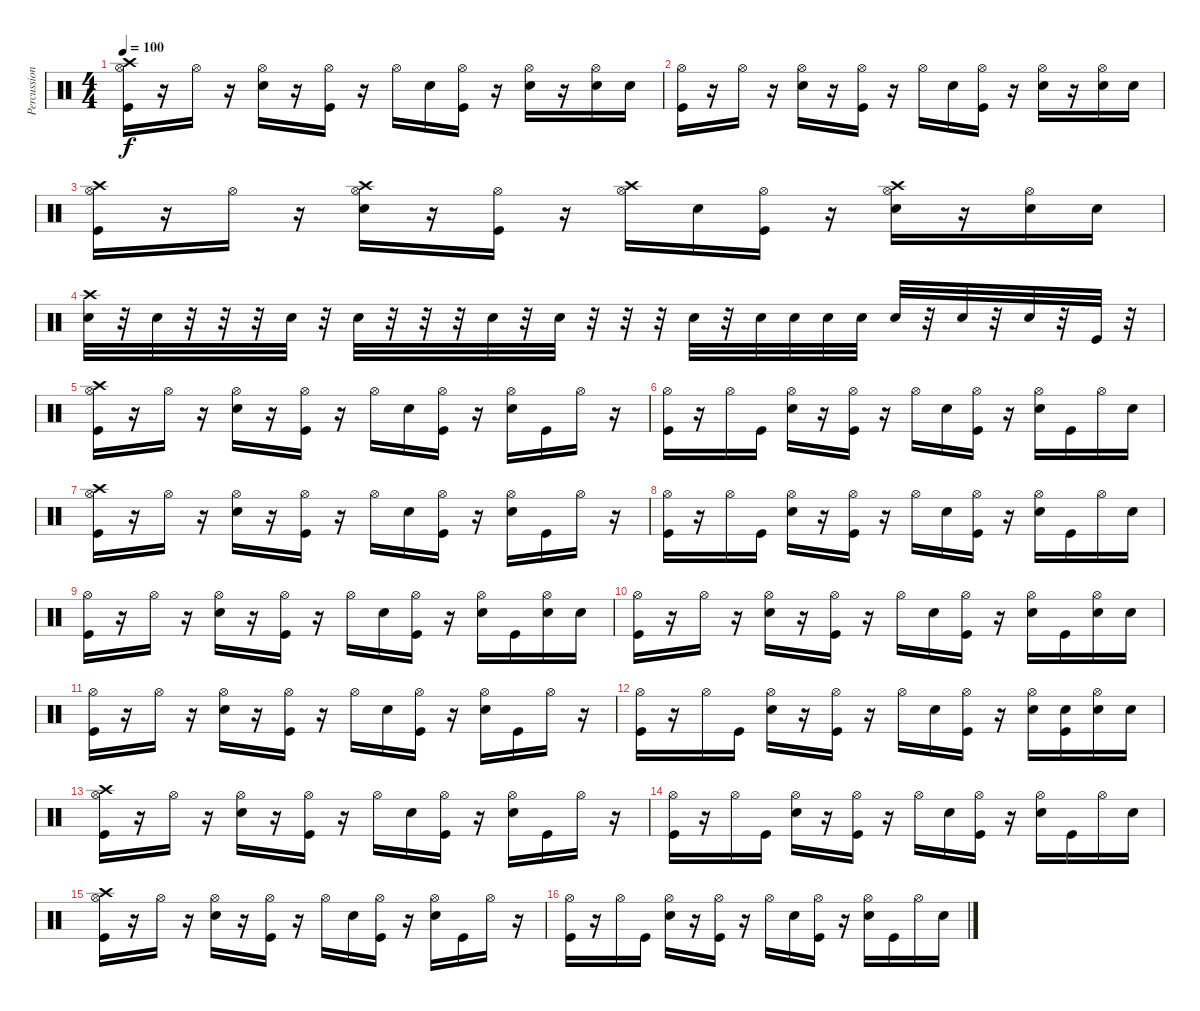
\track ("Percussion" "Percussion") {instrument percussion}
\staff {score}
\articulation defaults
\ts (4 4)
\tempo 100
\clef neutral
\ks c
("Crash high (hit)" "Hi-Hat (open)" "Kick (hit)").16{dy f} r.16 "Hi-Hat (open)".16 r.16 ("Hi-Hat (open)" "Snare (hit) 2").16 r.16 ("Hi-Hat (open)" "Kick (hit)").16 r.16 "Hi-Hat (open)".16 "Snare (hit) 2".16 ("Hi-Hat (open)" "Kick (hit)").16 r.16 ("Hi-Hat (open)" "Snare (hit) 2").16 r.16 ("Hi-Hat (open)" "Snare (hit) 2").16 "Snare (hit) 2".16 |
("Hi-Hat (open)" "Kick (hit)").16 r.16 "Hi-Hat (open)".16 r.16 ("Hi-Hat (open)" "Snare (hit) 2").16 r.16 ("Hi-Hat (open)" "Kick (hit)").16 r.16 "Hi-Hat (open)".16 "Snare (hit) 2".16 ("Hi-Hat (open)" "Kick (hit)").16 r.16 ("Hi-Hat (open)" "Snare (hit) 2").16 r.16 ("Hi-Hat (open)" "Snare (hit) 2").16 "Snare (hit) 2".16 |
("Crash high (hit)" "Hi-Hat (open)" "Kick (hit)").16 r.16 "Hi-Hat (open)".16 r.16 ("Crash high (hit)" "Hi-Hat (open)" "Snare (hit) 2").16 r.16 ("Hi-Hat (open)" "Kick (hit)").16 r.16 ("Crash high (hit)" "Hi-Hat (open)").16 "Snare (hit) 2".16 ("Hi-Hat (open)" "Kick (hit)").16 r.16 ("Crash high (hit)" "Hi-Hat (open)" "Snare (hit) 2").16 r.16 ("Hi-Hat (open)" "Snare (hit) 2").16 "Snare (hit) 2".16 |
("Crash high (hit)" "Snare (hit) 2").32 r.32 "Snare (hit) 2".32 r.32 r.32 r.32 "Snare (hit) 2".32 r.32 "Snare (hit) 2".32 r.32 r.32 r.32 "Snare (hit) 2".32 r.32 "Snare (hit) 2".32 r.32 r.32 r.32 "Snare (hit) 2".32 r.32 "Snare (hit) 2".32 "Snare (hit) 2".32 "Snare (hit) 2".32 "Snare (hit) 2".32 "Snare (hit) 2".32 r.32 "Snare (hit) 2".32 r.32 "Snare (hit) 2".32 r.32 "Kick (hit)".32 r.32 |
("Crash high (hit)" "Hi-Hat (open)" "Kick (hit)").16 r.16 "Hi-Hat (open)".16 r.16 ("Hi-Hat (open)" "Snare (hit) 2").16 r.16 ("Hi-Hat (open)" "Kick (hit)").16 r.16 "Hi-Hat (open)".16 "Snare (hit) 2".16 ("Hi-Hat (open)" "Kick (hit)").16 r.16 ("Hi-Hat (open)" "Snare (hit) 2").16 "Kick (hit)".16 "Hi-Hat (open)".16 r.16 |
("Hi-Hat (open)" "Kick (hit)").16 r.16 "Hi-Hat (open)".16 "Kick (hit)".16 ("Hi-Hat (open)" "Snare (hit) 2").16 r.16 ("Hi-Hat (open)" "Kick (hit)").16 r.16 "Hi-Hat (open)".16 "Snare (hit) 2".16 ("Hi-Hat (open)" "Kick (hit)").16 r.16 ("Hi-Hat (open)" "Snare (hit) 2").16 "Kick (hit)".16 "Hi-Hat (open)".16 "Snare (hit) 2".16 |
("Crash high (hit)" "Hi-Hat (open)" "Kick (hit)").16 r.16 "Hi-Hat (open)".16 r.16 ("Hi-Hat (open)" "Snare (hit) 2").16 r.16 ("Hi-Hat (open)" "Kick (hit)").16 r.16 "Hi-Hat (open)".16 "Snare (hit) 2".16 ("Hi-Hat (open)" "Kick (hit)").16 r.16 ("Hi-Hat (open)" "Snare (hit) 2").16 "Kick (hit)".16 "Hi-Hat (open)".16 r.16 |
("Hi-Hat (open)" "Kick (hit)").16 r.16 "Hi-Hat (open)".16 "Kick (hit)".16 ("Hi-Hat (open)" "Snare (hit) 2").16 r.16 ("Hi-Hat (open)" "Kick (hit)").16 r.16 "Hi-Hat (open)".16 "Snare (hit) 2".16 ("Hi-Hat (open)" "Kick (hit)").16 r.16 ("Hi-Hat (open)" "Snare (hit) 2").16 "Kick (hit)".16 "Hi-Hat (open)".16 "Snare (hit) 2".16 |
("Hi-Hat (open)" "Kick (hit)").16 r.16 "Hi-Hat (open)".16 r.16 ("Hi-Hat (open)" "Snare (hit) 2").16 r.16 ("Hi-Hat (open)" "Kick (hit)").16 r.16 "Hi-Hat (open)".16 "Snare (hit) 2".16 ("Hi-Hat (open)" "Kick (hit)").16 r.16 ("Hi-Hat (open)" "Snare (hit) 2").16 "Kick (hit)".16 ("Hi-Hat (open)" "Snare (hit) 2").16 "Snare (hit) 2".16 |
("Hi-Hat (open)" "Kick (hit)").16 r.16 "Hi-Hat (open)".16 r.16 ("Hi-Hat (open)" "Snare (hit) 2").16 r.16 ("Hi-Hat (open)" "Kick (hit)").16 r.16 "Hi-Hat (open)".16 "Snare (hit) 2".16 ("Hi-Hat (open)" "Kick (hit)").16 r.16 ("Hi-Hat (open)" "Snare (hit) 2").16 "Kick (hit)".16 ("Hi-Hat (open)" "Snare (hit) 2").16 "Snare (hit) 2".16 |
("Hi-Hat (open)" "Kick (hit)").16 r.16 "Hi-Hat (open)".16 r.16 ("Hi-Hat (open)" "Snare (hit) 2").16 r.16 ("Hi-Hat (open)" "Kick (hit)").16 r.16 "Hi-Hat (open)".16 "Snare (hit) 2".16 ("Hi-Hat (open)" "Kick (hit)").16 r.16 ("Hi-Hat (open)" "Snare (hit) 2").16 "Kick (hit)".16 "Hi-Hat (open)".16 r.16 |
("Hi-Hat (open)" "Kick (hit)").16 r.16 "Hi-Hat (open)".16 "Kick (hit)".16 ("Hi-Hat (open)" "Snare (hit) 2").16 r.16 ("Hi-Hat (open)" "Kick (hit)").16 r.16 "Hi-Hat (open)".16 "Snare (hit) 2".16 ("Hi-Hat (open)" "Kick (hit)").16 r.16 ("Hi-Hat (open)" "Snare (hit) 2").16 ("Snare (hit) 2" "Kick (hit)").16 ("Hi-Hat (open)" "Snare (hit) 2").16 "Snare (hit) 2".16 |
("Crash high (hit)" "Hi-Hat (open)" "Kick (hit)").16 r.16 "Hi-Hat (open)".16 r.16 ("Hi-Hat (open)" "Snare (hit) 2").16 r.16 ("Hi-Hat (open)" "Kick (hit)").16 r.16 "Hi-Hat (open)".16 "Snare (hit) 2".16 ("Hi-Hat (open)" "Kick (hit)").16 r.16 ("Hi-Hat (open)" "Snare (hit) 2").16 "Kick (hit)".16 "Hi-Hat (open)".16 r.16 |
("Hi-Hat (open)" "Kick (hit)").16 r.16 "Hi-Hat (open)".16 "Kick (hit)".16 ("Hi-Hat (open)" "Snare (hit) 2").16 r.16 ("Hi-Hat (open)" "Kick (hit)").16 r.16 "Hi-Hat (open)".16 "Snare (hit) 2".16 ("Hi-Hat (open)" "Kick (hit)").16 r.16 ("Hi-Hat (open)" "Snare (hit) 2").16 "Kick (hit)".16 "Hi-Hat (open)".16 "Snare (hit) 2".16 |
("Crash high (hit)" "Hi-Hat (open)" "Kick (hit)").16 r.16 "Hi-Hat (open)".16 r.16 ("Hi-Hat (open)" "Snare (hit) 2").16 r.16 ("Hi-Hat (open)" "Kick (hit)").16 r.16 "Hi-Hat (open)".16 "Snare (hit) 2".16 ("Hi-Hat (open)" "Kick (hit)").16 r.16 ("Hi-Hat (open)" "Snare (hit) 2").16 "Kick (hit)".16 "Hi-Hat (open)".16 r.16 |
("Hi-Hat (open)" "Kick (hit)").16 r.16 "Hi-Hat (open)".16 "Kick (hit)".16 ("Hi-Hat (open)" "Snare (hit) 2").16 r.16 ("Hi-Hat (open)" "Kick (hit)").16 r.16 "Hi-Hat (open)".16 "Snare (hit) 2".16 ("Hi-Hat (open)" "Kick (hit)").16 r.16 ("Hi-Hat (open)" "Snare (hit) 2").16 "Kick (hit)".16 "Hi-Hat (open)".16 "Snare (hit) 2".16
